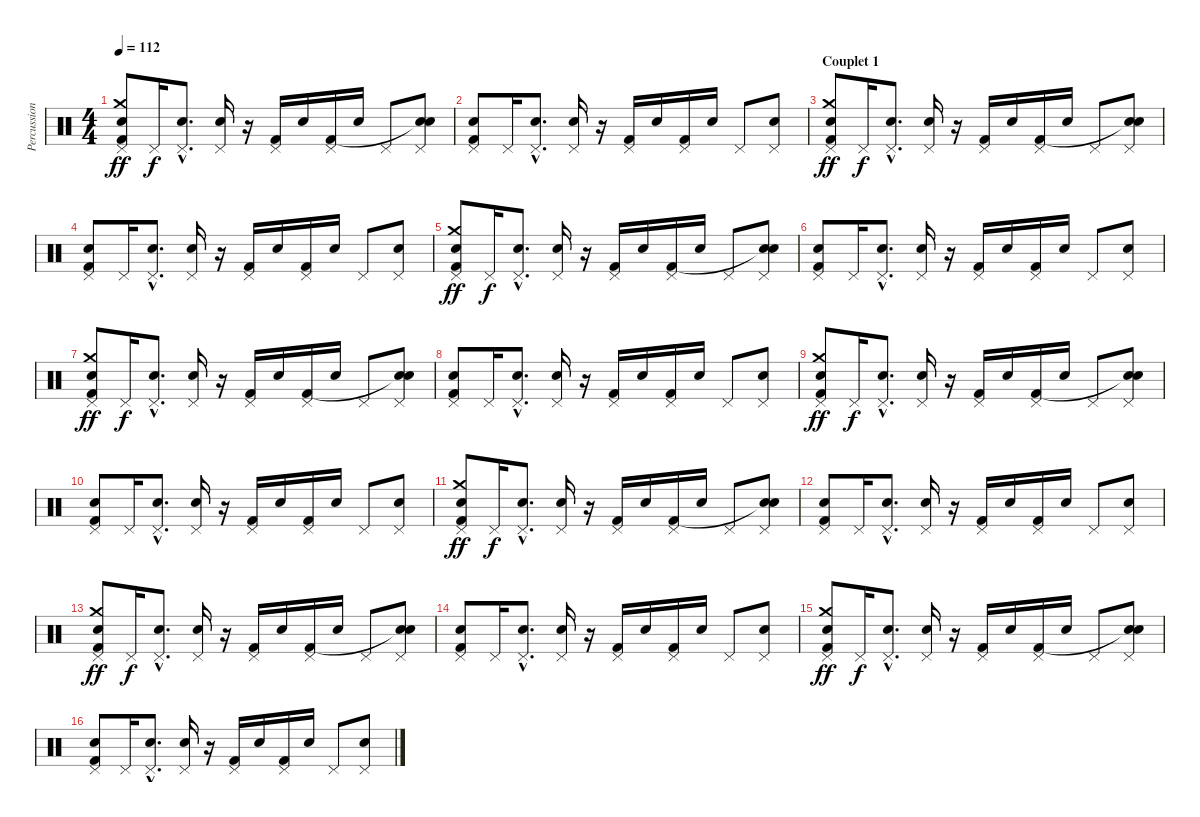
\track ("Percussions" "Percussion") {instrument percussion}
\staff {score}
\articulation defaults
\ts (4 4)
\tempo 112
\clef neutral
\ks c
("Pedal Hi-Hat (hit)" "Crash medium (hit)" "Kick (hit) 2" "Electric Snare (hit)").8{dy ff} "Pedal Hi-Hat (hit)".16{dy f} ("Pedal Hi-Hat (hit)"{hac} "Electric Snare (hit)"{hac}).8{d} ("Pedal Hi-Hat (hit)" "Electric Snare (hit)").16 r.16 ("Pedal Hi-Hat (hit)" "Kick (hit) 2").16 "Electric Snare (hit)".16 ("Pedal Hi-Hat (hit)" "Kick (hit) 2").16 "Electric Snare (hit)".16 "Pedal Hi-Hat (hit)".8 ("Pedal Hi-Hat (hit)" "Snare (hit)"{t} "Electric Snare (hit)").8 |
("Pedal Hi-Hat (hit)" "Kick (hit) 2" "Electric Snare (hit)").8 "Pedal Hi-Hat (hit)".16 ("Pedal Hi-Hat (hit)"{hac} "Electric Snare (hit)"{hac}).8{d} ("Pedal Hi-Hat (hit)" "Electric Snare (hit)").16 r.16 ("Pedal Hi-Hat (hit)" "Kick (hit) 2").16 "Electric Snare (hit)".16 ("Pedal Hi-Hat (hit)" "Kick (hit) 2").16 "Electric Snare (hit)".16 "Pedal Hi-Hat (hit)".8 ("Pedal Hi-Hat (hit)" "Electric Snare (hit)").8 |
\section ("" "Couplet 1")
("Pedal Hi-Hat (hit)" "Crash medium (hit)" "Kick (hit) 2" "Electric Snare (hit)").8{dy ff} "Pedal Hi-Hat (hit)".16{dy f} ("Pedal Hi-Hat (hit)"{hac} "Electric Snare (hit)"{hac}).8{d} ("Pedal Hi-Hat (hit)" "Electric Snare (hit)").16 r.16 ("Pedal Hi-Hat (hit)" "Kick (hit) 2").16 "Electric Snare (hit)".16 ("Pedal Hi-Hat (hit)" "Kick (hit) 2").16 "Electric Snare (hit)".16 "Pedal Hi-Hat (hit)".8 ("Pedal Hi-Hat (hit)" "Snare (hit)"{t} "Electric Snare (hit)").8 |
("Pedal Hi-Hat (hit)" "Kick (hit) 2" "Electric Snare (hit)").8 "Pedal Hi-Hat (hit)".16 ("Pedal Hi-Hat (hit)"{hac} "Electric Snare (hit)"{hac}).8{d} ("Pedal Hi-Hat (hit)" "Electric Snare (hit)").16 r.16 ("Pedal Hi-Hat (hit)" "Kick (hit) 2").16 "Electric Snare (hit)".16 ("Pedal Hi-Hat (hit)" "Kick (hit) 2").16 "Electric Snare (hit)".16 "Pedal Hi-Hat (hit)".8 ("Pedal Hi-Hat (hit)" "Electric Snare (hit)").8 |
("Pedal Hi-Hat (hit)" "Crash medium (hit)" "Kick (hit) 2" "Electric Snare (hit)").8{dy ff} "Pedal Hi-Hat (hit)".16{dy f} ("Pedal Hi-Hat (hit)"{hac} "Electric Snare (hit)"{hac}).8{d} ("Pedal Hi-Hat (hit)" "Electric Snare (hit)").16 r.16 ("Pedal Hi-Hat (hit)" "Kick (hit) 2").16 "Electric Snare (hit)".16 ("Pedal Hi-Hat (hit)" "Kick (hit) 2").16 "Electric Snare (hit)".16 "Pedal Hi-Hat (hit)".8 ("Pedal Hi-Hat (hit)" "Snare (hit)"{t} "Electric Snare (hit)").8 |
("Pedal Hi-Hat (hit)" "Kick (hit) 2" "Electric Snare (hit)").8 "Pedal Hi-Hat (hit)".16 ("Pedal Hi-Hat (hit)"{hac} "Electric Snare (hit)"{hac}).8{d} ("Pedal Hi-Hat (hit)" "Electric Snare (hit)").16 r.16 ("Pedal Hi-Hat (hit)" "Kick (hit) 2").16 "Electric Snare (hit)".16 ("Pedal Hi-Hat (hit)" "Kick (hit) 2").16 "Electric Snare (hit)".16 "Pedal Hi-Hat (hit)".8 ("Pedal Hi-Hat (hit)" "Electric Snare (hit)").8 |
("Pedal Hi-Hat (hit)" "Crash medium (hit)" "Kick (hit) 2" "Electric Snare (hit)").8{dy ff} "Pedal Hi-Hat (hit)".16{dy f} ("Pedal Hi-Hat (hit)"{hac} "Electric Snare (hit)"{hac}).8{d} ("Pedal Hi-Hat (hit)" "Electric Snare (hit)").16 r.16 ("Pedal Hi-Hat (hit)" "Kick (hit) 2").16 "Electric Snare (hit)".16 ("Pedal Hi-Hat (hit)" "Kick (hit) 2").16 "Electric Snare (hit)".16 "Pedal Hi-Hat (hit)".8 ("Pedal Hi-Hat (hit)" "Snare (hit)"{t} "Electric Snare (hit)").8 |
("Pedal Hi-Hat (hit)" "Kick (hit) 2" "Electric Snare (hit)").8 "Pedal Hi-Hat (hit)".16 ("Pedal Hi-Hat (hit)"{hac} "Electric Snare (hit)"{hac}).8{d} ("Pedal Hi-Hat (hit)" "Electric Snare (hit)").16 r.16 ("Pedal Hi-Hat (hit)" "Kick (hit) 2").16 "Electric Snare (hit)".16 ("Pedal Hi-Hat (hit)" "Kick (hit) 2").16 "Electric Snare (hit)".16 "Pedal Hi-Hat (hit)".8 ("Pedal Hi-Hat (hit)" "Electric Snare (hit)").8 |
("Pedal Hi-Hat (hit)" "Crash medium (hit)" "Kick (hit) 2" "Electric Snare (hit)").8{dy ff} "Pedal Hi-Hat (hit)".16{dy f} ("Pedal Hi-Hat (hit)"{hac} "Electric Snare (hit)"{hac}).8{d} ("Pedal Hi-Hat (hit)" "Electric Snare (hit)").16 r.16 ("Pedal Hi-Hat (hit)" "Kick (hit) 2").16 "Electric Snare (hit)".16 ("Pedal Hi-Hat (hit)" "Kick (hit) 2").16 "Electric Snare (hit)".16 "Pedal Hi-Hat (hit)".8 ("Pedal Hi-Hat (hit)" "Snare (hit)"{t} "Electric Snare (hit)").8 |
("Pedal Hi-Hat (hit)" "Kick (hit) 2" "Electric Snare (hit)").8 "Pedal Hi-Hat (hit)".16 ("Pedal Hi-Hat (hit)"{hac} "Electric Snare (hit)"{hac}).8{d} ("Pedal Hi-Hat (hit)" "Electric Snare (hit)").16 r.16 ("Pedal Hi-Hat (hit)" "Kick (hit) 2").16 "Electric Snare (hit)".16 ("Pedal Hi-Hat (hit)" "Kick (hit) 2").16 "Electric Snare (hit)".16 "Pedal Hi-Hat (hit)".8 ("Pedal Hi-Hat (hit)" "Electric Snare (hit)").8 |
("Pedal Hi-Hat (hit)" "Crash medium (hit)" "Kick (hit) 2" "Electric Snare (hit)").8{dy ff} "Pedal Hi-Hat (hit)".16{dy f} ("Pedal Hi-Hat (hit)"{hac} "Electric Snare (hit)"{hac}).8{d} ("Pedal Hi-Hat (hit)" "Electric Snare (hit)").16 r.16 ("Pedal Hi-Hat (hit)" "Kick (hit) 2").16 "Electric Snare (hit)".16 ("Pedal Hi-Hat (hit)" "Kick (hit) 2").16 "Electric Snare (hit)".16 "Pedal Hi-Hat (hit)".8 ("Pedal Hi-Hat (hit)" "Snare (hit)"{t} "Electric Snare (hit)").8 |
("Pedal Hi-Hat (hit)" "Kick (hit) 2" "Electric Snare (hit)").8 "Pedal Hi-Hat (hit)".16 ("Pedal Hi-Hat (hit)"{hac} "Electric Snare (hit)"{hac}).8{d} ("Pedal Hi-Hat (hit)" "Electric Snare (hit)").16 r.16 ("Pedal Hi-Hat (hit)" "Kick (hit) 2").16 "Electric Snare (hit)".16 ("Pedal Hi-Hat (hit)" "Kick (hit) 2").16 "Electric Snare (hit)".16 "Pedal Hi-Hat (hit)".8 ("Pedal Hi-Hat (hit)" "Electric Snare (hit)").8 |
("Pedal Hi-Hat (hit)" "Crash medium (hit)" "Kick (hit) 2" "Electric Snare (hit)").8{dy ff} "Pedal Hi-Hat (hit)".16{dy f} ("Pedal Hi-Hat (hit)"{hac} "Electric Snare (hit)"{hac}).8{d} ("Pedal Hi-Hat (hit)" "Electric Snare (hit)").16 r.16 ("Pedal Hi-Hat (hit)" "Kick (hit) 2").16 "Electric Snare (hit)".16 ("Pedal Hi-Hat (hit)" "Kick (hit) 2").16 "Electric Snare (hit)".16 "Pedal Hi-Hat (hit)".8 ("Pedal Hi-Hat (hit)" "Snare (hit)"{t} "Electric Snare (hit)").8 |
("Pedal Hi-Hat (hit)" "Kick (hit) 2" "Electric Snare (hit)").8 "Pedal Hi-Hat (hit)".16 ("Pedal Hi-Hat (hit)"{hac} "Electric Snare (hit)"{hac}).8{d} ("Pedal Hi-Hat (hit)" "Electric Snare (hit)").16 r.16 ("Pedal Hi-Hat (hit)" "Kick (hit) 2").16 "Electric Snare (hit)".16 ("Pedal Hi-Hat (hit)" "Kick (hit) 2").16 "Electric Snare (hit)".16 "Pedal Hi-Hat (hit)".8 ("Pedal Hi-Hat (hit)" "Electric Snare (hit)").8 |
("Pedal Hi-Hat (hit)" "Crash medium (hit)" "Kick (hit) 2" "Electric Snare (hit)").8{dy ff} "Pedal Hi-Hat (hit)".16{dy f} ("Pedal Hi-Hat (hit)"{hac} "Electric Snare (hit)"{hac}).8{d} ("Pedal Hi-Hat (hit)" "Electric Snare (hit)").16 r.16 ("Pedal Hi-Hat (hit)" "Kick (hit) 2").16 "Electric Snare (hit)".16 ("Pedal Hi-Hat (hit)" "Kick (hit) 2").16 "Electric Snare (hit)".16 "Pedal Hi-Hat (hit)".8 ("Pedal Hi-Hat (hit)" "Snare (hit)"{t} "Electric Snare (hit)").8 |
("Pedal Hi-Hat (hit)" "Kick (hit) 2" "Electric Snare (hit)").8 "Pedal Hi-Hat (hit)".16 ("Pedal Hi-Hat (hit)"{hac} "Electric Snare (hit)"{hac}).8{d} ("Pedal Hi-Hat (hit)" "Electric Snare (hit)").16 r.16 ("Pedal Hi-Hat (hit)" "Kick (hit) 2").16 "Electric Snare (hit)".16 ("Pedal Hi-Hat (hit)" "Kick (hit) 2").16 "Electric Snare (hit)".16 "Pedal Hi-Hat (hit)".8 ("Pedal Hi-Hat (hit)" "Electric Snare (hit)").8
